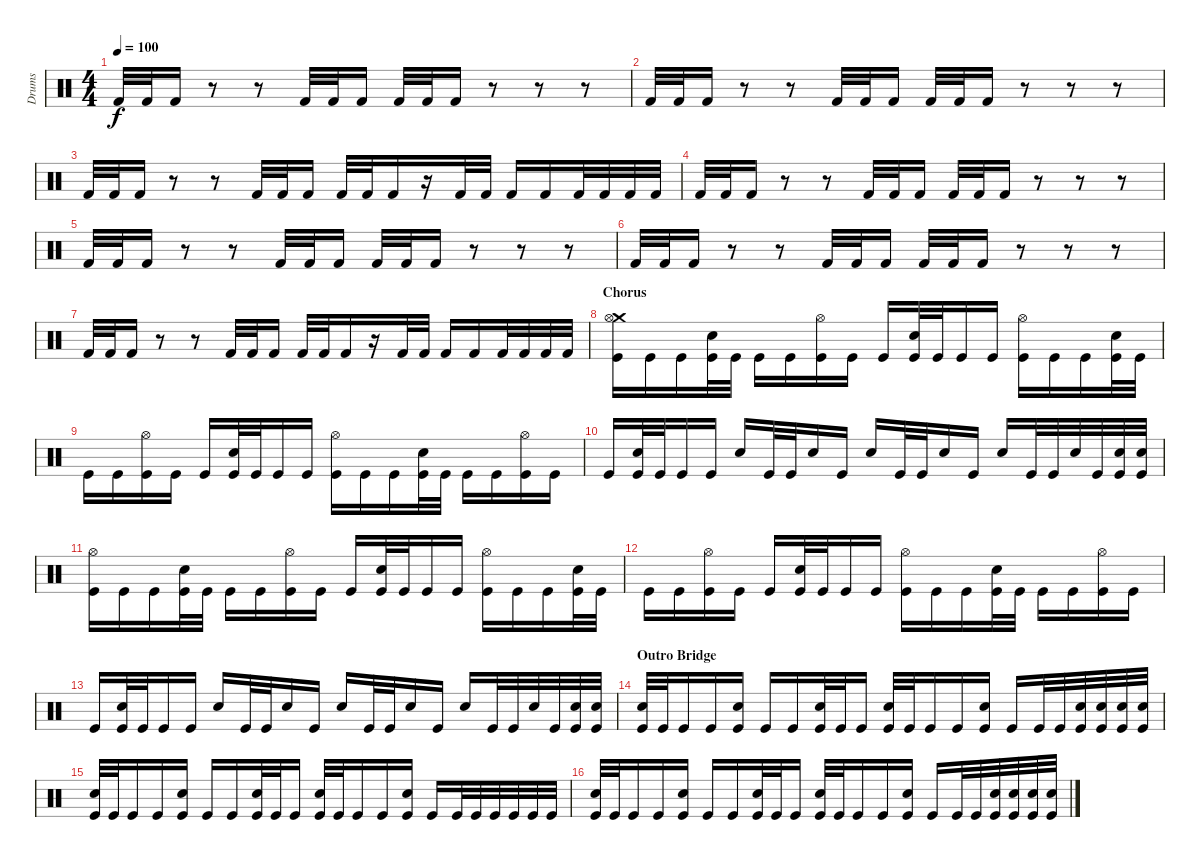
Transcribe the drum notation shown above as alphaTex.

\track ("Drums" "Drums") {instrument percussion}
\staff {score}
\articulation defaults
\ts (4 4)
\tempo 100
\clef neutral
\ks c "Kick (hit) 2".32{dy f} "Kick (hit) 2".32 "Kick (hit) 2".16
r.8 r.8 "Kick (hit) 2".32 "Kick (hit) 2".32 "Kick (hit) 2".16 "Kick (hit) 2".32 "Kick (hit) 2".32 "Kick (hit) 2".16 r.8 r.8 r.8 |
"Kick (hit) 2".32 "Kick (hit) 2".32 "Kick (hit) 2".16 r.8 r.8 "Kick (hit) 2".32 "Kick (hit) 2".32 "Kick (hit) 2".16 "Kick (hit) 2".32 "Kick (hit) 2".32 "Kick (hit) 2".16 r.8 r.8 r.8 |
"Kick (hit) 2".32 "Kick (hit) 2".32 "Kick (hit) 2".16 r.8 r.8 "Kick (hit) 2".32 "Kick (hit) 2".32 "Kick (hit) 2".16 "Kick (hit) 2".32 "Kick (hit) 2".32 "Kick (hit) 2".16 r.16 "Kick (hit) 2".32 "Kick (hit) 2".32 "Kick (hit) 2".16 "Kick (hit) 2".16 "Kick (hit) 2".32 "Kick (hit) 2".32 "Kick (hit) 2".32 "Kick (hit) 2".32 |
"Kick (hit) 2".32 "Kick (hit) 2".32 "Kick (hit) 2".16 r.8 r.8 "Kick (hit) 2".32 "Kick (hit) 2".32 "Kick (hit) 2".16 "Kick (hit) 2".32 "Kick (hit) 2".32 "Kick (hit) 2".16 r.8 r.8 r.8 |
"Kick (hit) 2".32 "Kick (hit) 2".32 "Kick (hit) 2".16 r.8 r.8 "Kick (hit) 2".32 "Kick (hit) 2".32 "Kick (hit) 2".16 "Kick (hit) 2".32 "Kick (hit) 2".32 "Kick (hit) 2".16 r.8 r.8 r.8 |
"Kick (hit) 2".32 "Kick (hit) 2".32 "Kick (hit) 2".16 r.8 r.8 "Kick (hit) 2".32 "Kick (hit) 2".32 "Kick (hit) 2".16 "Kick (hit) 2".32 "Kick (hit) 2".32 "Kick (hit) 2".16 r.8 r.8 r.8 |
"Kick (hit) 2".32 "Kick (hit) 2".32 "Kick (hit) 2".16 r.8 r.8 "Kick (hit) 2".32 "Kick (hit) 2".32 "Kick (hit) 2".16 "Kick (hit) 2".32 "Kick (hit) 2".32 "Kick (hit) 2".16 r.16 "Kick (hit) 2".32 "Kick (hit) 2".32 "Kick (hit) 2".16 "Kick (hit) 2".16 "Kick (hit) 2".32 "Kick (hit) 2".32 "Kick (hit) 2".32 "Kick (hit) 2".32 |
\section ("" "Chorus")
("Crash medium (hit)" "Hi-Hat (open)" "Kick (hit)").16 "Kick (hit)".16 "Kick (hit)".16 ("Electric Snare (hit)" "Kick (hit)").32 "Kick (hit)".32 "Kick (hit)".16 "Kick (hit)".16 ("Hi-Hat (open)" "Kick (hit)").16 "Kick (hit)".16 "Kick (hit)".16 ("Electric Snare (hit)" "Kick (hit)").32 "Kick (hit)".32 "Kick (hit)".16 "Kick (hit)".16 ("Hi-Hat (open)" "Kick (hit)").16 "Kick (hit)".16 "Kick (hit)".16 ("Electric Snare (hit)" "Kick (hit)").32 "Kick (hit)".32 |
"Kick (hit)".16 "Kick (hit)".16 ("Hi-Hat (open)" "Kick (hit)").16 "Kick (hit)".16 "Kick (hit)".16 ("Electric Snare (hit)" "Kick (hit)").32 "Kick (hit)".32 "Kick (hit)".16 "Kick (hit)".16 ("Hi-Hat (open)" "Kick (hit)").16 "Kick (hit)".16 "Kick (hit)".16 ("Electric Snare (hit)" "Kick (hit)").32 "Kick (hit)".32 "Kick (hit)".16 "Kick (hit)".16 ("Hi-Hat (open)" "Kick (hit)").16 "Kick (hit)".16 |
"Kick (hit)".16 ("Electric Snare (hit)" "Kick (hit)").32 "Kick (hit)".32 "Kick (hit)".16 "Kick (hit)".16 "Electric Snare (hit)".16 "Kick (hit)".32 "Kick (hit)".32 "Electric Snare (hit)".16 "Kick (hit)".16 "Electric Snare (hit)".16 "Kick (hit)".32 "Kick (hit)".32 "Electric Snare (hit)".16 "Kick (hit)".16 "Electric Snare (hit)".16 "Kick (hit)".32 "Kick (hit)".32 "Electric Snare (hit)".32 "Kick (hit)".32 ("Electric Snare (hit)" "Kick (hit)").32 ("Electric Snare (hit)" "Kick (hit)").32 |
("Hi-Hat (open)" "Kick (hit)").16 "Kick (hit)".16 "Kick (hit)".16 ("Electric Snare (hit)" "Kick (hit)").32 "Kick (hit)".32 "Kick (hit)".16 "Kick (hit)".16 ("Hi-Hat (open)" "Kick (hit)").16 "Kick (hit)".16 "Kick (hit)".16 ("Electric Snare (hit)" "Kick (hit)").32 "Kick (hit)".32 "Kick (hit)".16 "Kick (hit)".16 ("Hi-Hat (open)" "Kick (hit)").16 "Kick (hit)".16 "Kick (hit)".16 ("Electric Snare (hit)" "Kick (hit)").32 "Kick (hit)".32 |
"Kick (hit)".16 "Kick (hit)".16 ("Hi-Hat (open)" "Kick (hit)").16 "Kick (hit)".16 "Kick (hit)".16 ("Electric Snare (hit)" "Kick (hit)").32 "Kick (hit)".32 "Kick (hit)".16 "Kick (hit)".16 ("Hi-Hat (open)" "Kick (hit)").16 "Kick (hit)".16 "Kick (hit)".16 ("Electric Snare (hit)" "Kick (hit)").32 "Kick (hit)".32 "Kick (hit)".16 "Kick (hit)".16 ("Hi-Hat (open)" "Kick (hit)").16 "Kick (hit)".16 |
"Kick (hit)".16 ("Electric Snare (hit)" "Kick (hit)").32 "Kick (hit)".32 "Kick (hit)".16 "Kick (hit)".16 "Electric Snare (hit)".16 "Kick (hit)".32 "Kick (hit)".32 "Electric Snare (hit)".16 "Kick (hit)".16 "Electric Snare (hit)".16 "Kick (hit)".32 "Kick (hit)".32 "Electric Snare (hit)".16 "Kick (hit)".16 "Electric Snare (hit)".16 "Kick (hit)".32 "Kick (hit)".32 "Electric Snare (hit)".32 "Kick (hit)".32 ("Electric Snare (hit)" "Kick (hit)").32 ("Electric Snare (hit)" "Kick (hit)").32 |
\section ("" "Outro Bridge")
("Electric Snare (hit)" "Kick (hit)").32 "Kick (hit)".32 "Kick (hit)".16 "Kick (hit)".16 ("Electric Snare (hit)" "Kick (hit)").16 "Kick (hit)".16 "Kick (hit)".16 ("Electric Snare (hit)" "Kick (hit)").32 "Kick (hit)".32 "Kick (hit)".16 ("Electric Snare (hit)" "Kick (hit)").32 "Kick (hit)".32 "Kick (hit)".16 "Kick (hit)".16 ("Electric Snare (hit)" "Kick (hit)").16 "Kick (hit)".16 "Kick (hit)".32 "Kick (hit)".32 ("Electric Snare (hit)" "Kick (hit)").32 ("Electric Snare (hit)" "Kick (hit)").32 ("Electric Snare (hit)" "Kick (hit)").32 ("Electric Snare (hit)" "Kick (hit)").32 |
("Electric Snare (hit)" "Kick (hit)").32 "Kick (hit)".32 "Kick (hit)".16 "Kick (hit)".16 ("Electric Snare (hit)" "Kick (hit)").16 "Kick (hit)".16 "Kick (hit)".16 ("Electric Snare (hit)" "Kick (hit)").32 "Kick (hit)".32 "Kick (hit)".16 ("Electric Snare (hit)" "Kick (hit)").32 "Kick (hit)".32 "Kick (hit)".16 "Kick (hit)".16 ("Electric Snare (hit)" "Kick (hit)").16 "Kick (hit)".16 "Kick (hit)".32 "Kick (hit)".32 "Kick (hit)".32 "Kick (hit)".32 "Kick (hit)".32 "Kick (hit)".32 |
("Electric Snare (hit)" "Kick (hit)").32 "Kick (hit)".32 "Kick (hit)".16 "Kick (hit)".16 ("Electric Snare (hit)" "Kick (hit)").16 "Kick (hit)".16 "Kick (hit)".16 ("Electric Snare (hit)" "Kick (hit)").32 "Kick (hit)".32 "Kick (hit)".16 ("Electric Snare (hit)" "Kick (hit)").32 "Kick (hit)".32 "Kick (hit)".16 "Kick (hit)".16 ("Electric Snare (hit)" "Kick (hit)").16 "Kick (hit)".16 "Kick (hit)".32 "Kick (hit)".32 ("Electric Snare (hit)" "Kick (hit)").32 ("Electric Snare (hit)" "Kick (hit)").32 ("Electric Snare (hit)" "Kick (hit)").32 ("Electric Snare (hit)" "Kick (hit)").32
